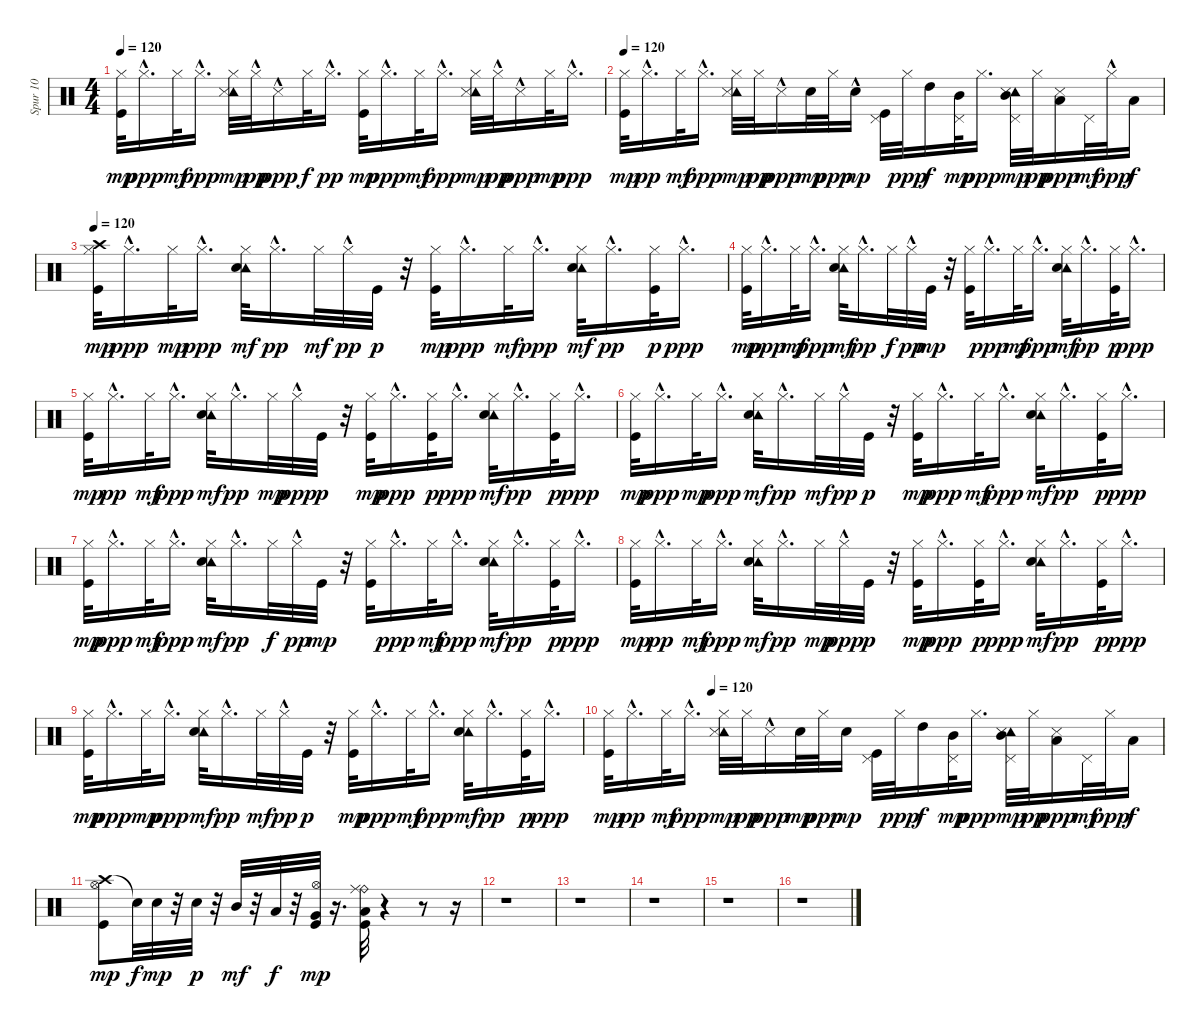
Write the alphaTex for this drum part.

\track ("Spur 10" "Spur 10") {instrument percussion}
\staff {score}
\articulation defaults
\ts (4 4)
\tempo 120
\clef neutral
\ks c
("Hi-Hat (closed)" "Kick (hit)").32{dy mp} "Hi-Hat (closed)"{hac}.16{d dy ppp} "Hi-Hat (closed)".32{dy mf} "Hi-Hat (closed)"{hac}.16{d dy ppp} ("Tambourine (hit)" "Snare (side stick) 3" "Hi-Hat (closed)").32{dy mp} "Hi-Hat (closed)"{hac}.32{dy pp} "Snare (side stick) 3"{hac}.16{dy ppp} "Hi-Hat (closed)".32{dy f} "Hi-Hat (closed)"{hac}.16{d dy pp} ("Hi-Hat (closed)" "Kick (hit)").32{dy mp} "Hi-Hat (closed)"{hac}.16{d dy ppp} "Hi-Hat (closed)".32{dy mf} "Hi-Hat (closed)"{hac}.16{d dy ppp} ("Tambourine (hit)" "Snare (side stick) 3" "Hi-Hat (closed)").32{dy mp} "Hi-Hat (closed)"{hac}.32{dy pp} "Snare (side stick) 3"{hac}.16{dy ppp} "Hi-Hat (closed)".32{dy mp} "Hi-Hat (closed)"{hac}.16{d dy ppp} |
\tempo 120
("Hi-Hat (closed)" "Kick (hit)").32{dy mp} "Hi-Hat (closed)"{hac}.16{d dy pp} "Hi-Hat (closed)".32{dy mf} "Hi-Hat (closed)"{hac}.16{d dy ppp} ("Tambourine (hit)" "Snare (side stick) 3" "Hi-Hat (closed)").32{dy mp} "Hi-Hat (closed)".32{dy pp} "Snare (side stick) 3"{hac}.16{dy ppp} "Snare (hit) 2".32{dy mp} "Hi-Hat (closed)".32{dy ppp} "Snare (hit) 2"{hac}.16{dy mp} ("Pedal Hi-Hat (hit)" "Kick (hit)").32 "Hi-Hat (closed)".32{dy ppp} "High Tom (hit)".16{dy f} ("Mid Tom (hit)" "Pedal Hi-Hat (hit)").32{dy mp} "Hi-Hat (closed)".16{d dy ppp} ("Tambourine (hit)" "Mid Tom (hit)" "Snare (side stick) 3" "Pedal Hi-Hat (hit)").32{dy mp} "Hi-Hat (closed)".32{dy pp} ("Low Tom (hit)" "Snare (side stick) 3").16{dy ppp} "Pedal Hi-Hat (hit)".32{dy mf} "Hi-Hat (closed)"{hac}.32{dy ppp} "Low Floor Tom (hit)".16{dy f} |
\tempo 120
("Crash high (hit)" "Hi-Hat (closed)" "Kick (hit)").32{dy mp} "Hi-Hat (closed)"{hac}.16{d dy ppp} "Hi-Hat (closed)".32{dy mp} "Hi-Hat (closed)"{hac}.16{d dy ppp} ("Tambourine (hit)" "Snare (hit) 2" "Hi-Hat (closed)").32{dy mf} "Hi-Hat (closed)"{hac}.16{d dy pp} "Hi-Hat (closed)".32{dy mf} "Hi-Hat (closed)"{hac}.32{dy pp} "Kick (hit)".32{dy p} r.32 ("Hi-Hat (closed)" "Kick (hit)").32{dy mp} "Hi-Hat (closed)"{hac}.16{d dy ppp} "Hi-Hat (closed)".32{dy mf} "Hi-Hat (closed)"{hac}.16{d dy ppp} ("Tambourine (hit)" "Snare (hit) 2" "Hi-Hat (closed)").32{dy mf} "Hi-Hat (closed)"{hac}.16{d dy pp} ("Hi-Hat (closed)" "Kick (hit)").32{dy p} "Hi-Hat (closed)"{hac}.16{d dy ppp} |
("Hi-Hat (closed)" "Kick (hit)").32{dy mp} "Hi-Hat (closed)"{hac}.16{d dy ppp} "Hi-Hat (closed)".32{dy mf} "Hi-Hat (closed)"{hac}.16{d dy ppp} ("Tambourine (hit)" "Snare (hit) 2" "Hi-Hat (closed)").32{dy mf} "Hi-Hat (closed)"{hac}.16{d dy pp} "Hi-Hat (closed)".32{dy f} "Hi-Hat (closed)"{hac}.32{dy pp} "Kick (hit)".32{dy mp} r.32 ("Hi-Hat (closed)" "Kick (hit)").32 "Hi-Hat (closed)"{hac}.16{d dy ppp} "Hi-Hat (closed)".32{dy mf} "Hi-Hat (closed)"{hac}.16{d dy ppp} ("Tambourine (hit)" "Snare (hit) 2" "Hi-Hat (closed)").32{dy mf} "Hi-Hat (closed)"{hac}.16{d dy pp} ("Hi-Hat (closed)" "Kick (hit)").32{dy p} "Hi-Hat (closed)"{hac}.16{d dy ppp} |
("Hi-Hat (closed)" "Kick (hit)").32{dy mp} "Hi-Hat (closed)"{hac}.16{d dy pp} "Hi-Hat (closed)".32{dy mf} "Hi-Hat (closed)"{hac}.16{d dy ppp} ("Tambourine (hit)" "Snare (hit) 2" "Hi-Hat (closed)").32{dy mf} "Hi-Hat (closed)"{hac}.16{d dy pp} "Hi-Hat (closed)".32{dy mp} "Hi-Hat (closed)"{hac}.32{dy ppp} "Kick (hit)".32{dy p} r.32 ("Hi-Hat (closed)" "Kick (hit)").32{dy mp} "Hi-Hat (closed)"{hac}.16{d dy ppp} ("Hi-Hat (closed)" "Kick (hit)").32{dy p} "Hi-Hat (closed)"{hac}.16{d dy ppp} ("Tambourine (hit)" "Snare (hit) 2" "Hi-Hat (closed)").32{dy mf} "Hi-Hat (closed)"{hac}.16{d dy pp} ("Hi-Hat (closed)" "Kick (hit)").32{dy p} "Hi-Hat (closed)"{hac}.16{d dy ppp} |
("Hi-Hat (closed)" "Kick (hit)").32{dy mp} "Hi-Hat (closed)"{hac}.16{d dy ppp} "Hi-Hat (closed)".32{dy mp} "Hi-Hat (closed)"{hac}.16{d dy ppp} ("Tambourine (hit)" "Snare (hit) 2" "Hi-Hat (closed)").32{dy mf} "Hi-Hat (closed)"{hac}.16{d dy pp} "Hi-Hat (closed)".32{dy mf} "Hi-Hat (closed)"{hac}.32{dy pp} "Kick (hit)".32{dy p} r.32 ("Hi-Hat (closed)" "Kick (hit)").32{dy mp} "Hi-Hat (closed)"{hac}.16{d dy ppp} "Hi-Hat (closed)".32{dy mf} "Hi-Hat (closed)"{hac}.16{d dy ppp} ("Tambourine (hit)" "Snare (hit) 2" "Hi-Hat (closed)").32{dy mf} "Hi-Hat (closed)"{hac}.16{d dy pp} ("Hi-Hat (closed)" "Kick (hit)").32{dy p} "Hi-Hat (closed)"{hac}.16{d dy ppp} |
("Hi-Hat (closed)" "Kick (hit)").32{dy mp} "Hi-Hat (closed)"{hac}.16{d dy ppp} "Hi-Hat (closed)".32{dy mf} "Hi-Hat (closed)"{hac}.16{d dy ppp} ("Tambourine (hit)" "Snare (hit) 2" "Hi-Hat (closed)").32{dy mf} "Hi-Hat (closed)"{hac}.16{d dy pp} "Hi-Hat (closed)".32{dy f} "Hi-Hat (closed)"{hac}.32{dy pp} "Kick (hit)".32{dy mp} r.32 ("Hi-Hat (closed)" "Kick (hit)").32 "Hi-Hat (closed)"{hac}.16{d dy ppp} "Hi-Hat (closed)".32{dy mf} "Hi-Hat (closed)"{hac}.16{d dy ppp} ("Tambourine (hit)" "Snare (hit) 2" "Hi-Hat (closed)").32{dy mf} "Hi-Hat (closed)"{hac}.16{d dy pp} ("Hi-Hat (closed)" "Kick (hit)").32{dy p} "Hi-Hat (closed)"{hac}.16{d dy ppp} |
("Hi-Hat (closed)" "Kick (hit)").32{dy mp} "Hi-Hat (closed)"{hac}.16{d dy pp} "Hi-Hat (closed)".32{dy mf} "Hi-Hat (closed)"{hac}.16{d dy ppp} ("Tambourine (hit)" "Snare (hit) 2" "Hi-Hat (closed)").32{dy mf} "Hi-Hat (closed)"{hac}.16{d dy pp} "Hi-Hat (closed)".32{dy mp} "Hi-Hat (closed)"{hac}.32{dy ppp} "Kick (hit)".32{dy p} r.32 ("Hi-Hat (closed)" "Kick (hit)").32{dy mp} "Hi-Hat (closed)"{hac}.16{d dy ppp} ("Hi-Hat (closed)" "Kick (hit)").32{dy p} "Hi-Hat (closed)"{hac}.16{d dy ppp} ("Tambourine (hit)" "Snare (hit) 2" "Hi-Hat (closed)").32{dy mf} "Hi-Hat (closed)"{hac}.16{d dy pp} ("Hi-Hat (closed)" "Kick (hit)").32{dy p} "Hi-Hat (closed)"{hac}.16{d dy ppp} |
("Hi-Hat (closed)" "Kick (hit)").32{dy mp} "Hi-Hat (closed)"{hac}.16{d dy ppp} "Hi-Hat (closed)".32{dy mp} "Hi-Hat (closed)"{hac}.16{d dy ppp} ("Tambourine (hit)" "Snare (hit) 2" "Hi-Hat (closed)").32{dy mf} "Hi-Hat (closed)"{hac}.16{d dy pp} "Hi-Hat (closed)".32{dy mf} "Hi-Hat (closed)"{hac}.32{dy pp} "Kick (hit)".32{dy p} r.32 ("Hi-Hat (closed)" "Kick (hit)").32{dy mp} "Hi-Hat (closed)"{hac}.16{d dy ppp} "Hi-Hat (closed)".32{dy mf} "Hi-Hat (closed)"{hac}.16{d dy ppp} ("Tambourine (hit)" "Snare (hit) 2" "Hi-Hat (closed)").32{dy mf} "Hi-Hat (closed)"{hac}.16{d dy pp} ("Hi-Hat (closed)" "Kick (hit)").32{dy p} "Hi-Hat (closed)"{hac}.16{d dy ppp} |
\tempo (120 0.1875)
("Hi-Hat (closed)" "Kick (hit)").32{dy mp} "Hi-Hat (closed)"{hac}.16{d dy pp} "Hi-Hat (closed)".32{dy mf} "Hi-Hat (closed)"{hac}.16{d dy ppp} ("Tambourine (hit)" "Snare (side stick) 3" "Hi-Hat (closed)").32{dy mp} "Hi-Hat (closed)".32{dy pp} "Snare (side stick) 3"{hac}.16{dy ppp} "Snare (hit) 2".32{dy mp} "Hi-Hat (closed)".32{dy ppp} "Snare (hit) 2".16{dy mp} ("Pedal Hi-Hat (hit)" "Kick (hit)").32 "Hi-Hat (closed)".32{dy ppp} "High Tom (hit)".16{dy f} ("Mid Tom (hit)" "Pedal Hi-Hat (hit)").32{dy mp} "Hi-Hat (closed)".16{d dy ppp} ("Tambourine (hit)" "Mid Tom (hit)" "Snare (side stick) 3" "Pedal Hi-Hat (hit)").32{dy mp} "Hi-Hat (closed)".32{dy pp} ("Low Tom (hit)" "Snare (side stick) 3").16{dy ppp} "Pedal Hi-Hat (hit)".32{dy mf} "Hi-Hat (closed)".32{dy ppp} "Low Floor Tom (hit)".16{dy f} |
("Crash high (hit)" "Hi-Hat (open)" "Kick (hit)").8{dy mp} "Snare (hit)"{t}.32{dy f} "Snare (hit) 2".32{dy mp} r.32 "Electric Snare (hit)".32{dy p} r.32 "Mid Tom (hit)".32{dy mf} r.32 "Low Tom (hit)".32{dy f} r.32 ("Hi-Hat (open)" "Very Low Tom (hit)" "Kick (hit)").32{dy mp} r.16{d} ("Low Floor Tom (hit)" "Ride (bell)" "Ride (middle)" "Kick (hit)").32 r.4 r.8 r.16 |
r.1 |
r.1 |
r.1 |
r.1 |
r.1
